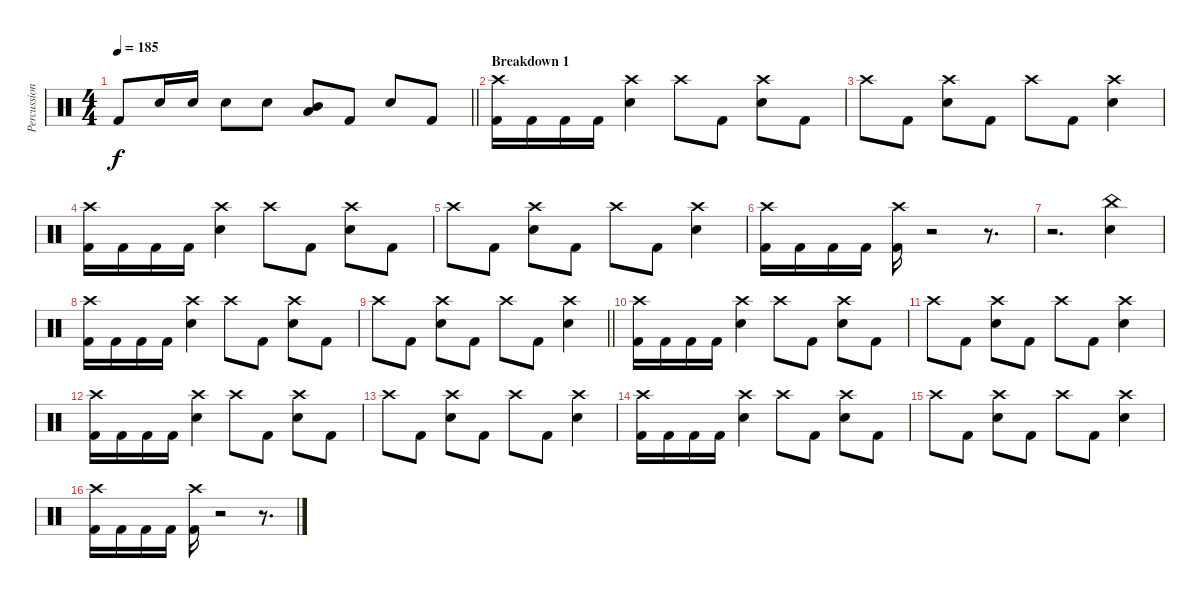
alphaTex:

\track ("Percussion" "Percussion") {instrument percussion}
\staff {score}
\articulation defaults
\ts (4 4)
\tempo 185
\clef neutral
\barLineRight lightlight
\ks c "Kick (hit) 2".8{dy f} "Electric Snare (hit)".16 "Electric Snare (hit)".16 "Electric Snare (hit)".8 "Electric Snare (hit)".8
("Mid Tom (hit)" "Low Tom (hit)").8 "Kick (hit) 2".8 "Electric Snare (hit)".8 "Kick (hit) 2".8 |
\section ("" "Breakdown 1")
("Crash high (hit)" "Kick (hit) 2").16 "Kick (hit) 2".16 "Kick (hit) 2".16 "Kick (hit) 2".16 ("Crash high (hit)" "Electric Snare (hit)").4 "Crash high (hit)".8 "Kick (hit) 2".8 ("Crash high (hit)" "Electric Snare (hit)").8 "Kick (hit) 2".8 |
"Crash high (hit)".8 "Kick (hit) 2".8 ("Crash high (hit)" "Electric Snare (hit)").8 "Kick (hit) 2".8 "Crash high (hit)".8 "Kick (hit) 2".8 ("Crash high (hit)" "Electric Snare (hit)").4 |
("Crash high (hit)" "Kick (hit) 2").16 "Kick (hit) 2".16 "Kick (hit) 2".16 "Kick (hit) 2".16 ("Crash high (hit)" "Electric Snare (hit)").4 "Crash high (hit)".8 "Kick (hit) 2".8 ("Crash high (hit)" "Electric Snare (hit)").8 "Kick (hit) 2".8 |
"Crash high (hit)".8 "Kick (hit) 2".8 ("Crash high (hit)" "Electric Snare (hit)").8 "Kick (hit) 2".8 "Crash high (hit)".8 "Kick (hit) 2".8 ("Crash high (hit)" "Electric Snare (hit)").4 |
("Crash high (hit)" "Kick (hit) 2").16 "Kick (hit) 2".16 "Kick (hit) 2".16 "Kick (hit) 2".16 ("Crash high (hit)" "Kick (hit) 2").16 r.2 r.8{d} |
r.2{d} ("China (hit)" "Electric Snare (hit)").4 |
("Crash high (hit)" "Kick (hit) 2").16 "Kick (hit) 2".16 "Kick (hit) 2".16 "Kick (hit) 2".16 ("Crash high (hit)" "Electric Snare (hit)").4 "Crash high (hit)".8 "Kick (hit) 2".8 ("Crash high (hit)" "Electric Snare (hit)").8 "Kick (hit) 2".8 |
\barLineRight lightlight "Crash high (hit)".8 "Kick (hit) 2".8
("Crash high (hit)" "Electric Snare (hit)").8 "Kick (hit) 2".8 "Crash high (hit)".8 "Kick (hit) 2".8 ("Crash high (hit)" "Electric Snare (hit)").4 |
("Crash high (hit)" "Kick (hit) 2").16 "Kick (hit) 2".16 "Kick (hit) 2".16 "Kick (hit) 2".16 ("Crash high (hit)" "Electric Snare (hit)").4 "Crash high (hit)".8 "Kick (hit) 2".8 ("Crash high (hit)" "Electric Snare (hit)").8 "Kick (hit) 2".8 |
"Crash high (hit)".8 "Kick (hit) 2".8 ("Crash high (hit)" "Electric Snare (hit)").8 "Kick (hit) 2".8 "Crash high (hit)".8 "Kick (hit) 2".8 ("Crash high (hit)" "Electric Snare (hit)").4 |
("Crash high (hit)" "Kick (hit) 2").16 "Kick (hit) 2".16 "Kick (hit) 2".16 "Kick (hit) 2".16 ("Crash high (hit)" "Electric Snare (hit)").4 "Crash high (hit)".8 "Kick (hit) 2".8 ("Crash high (hit)" "Electric Snare (hit)").8 "Kick (hit) 2".8 |
"Crash high (hit)".8 "Kick (hit) 2".8 ("Crash high (hit)" "Electric Snare (hit)").8 "Kick (hit) 2".8 "Crash high (hit)".8 "Kick (hit) 2".8 ("Crash high (hit)" "Electric Snare (hit)").4 |
("Crash high (hit)" "Kick (hit) 2").16 "Kick (hit) 2".16 "Kick (hit) 2".16 "Kick (hit) 2".16 ("Crash high (hit)" "Electric Snare (hit)").4 "Crash high (hit)".8 "Kick (hit) 2".8 ("Crash high (hit)" "Electric Snare (hit)").8 "Kick (hit) 2".8 |
"Crash high (hit)".8 "Kick (hit) 2".8 ("Crash high (hit)" "Electric Snare (hit)").8 "Kick (hit) 2".8 "Crash high (hit)".8 "Kick (hit) 2".8 ("Crash high (hit)" "Electric Snare (hit)").4 |
("Crash high (hit)" "Kick (hit) 2").16 "Kick (hit) 2".16 "Kick (hit) 2".16 "Kick (hit) 2".16 ("Crash high (hit)" "Kick (hit) 2").16 r.2 r.8{d}
